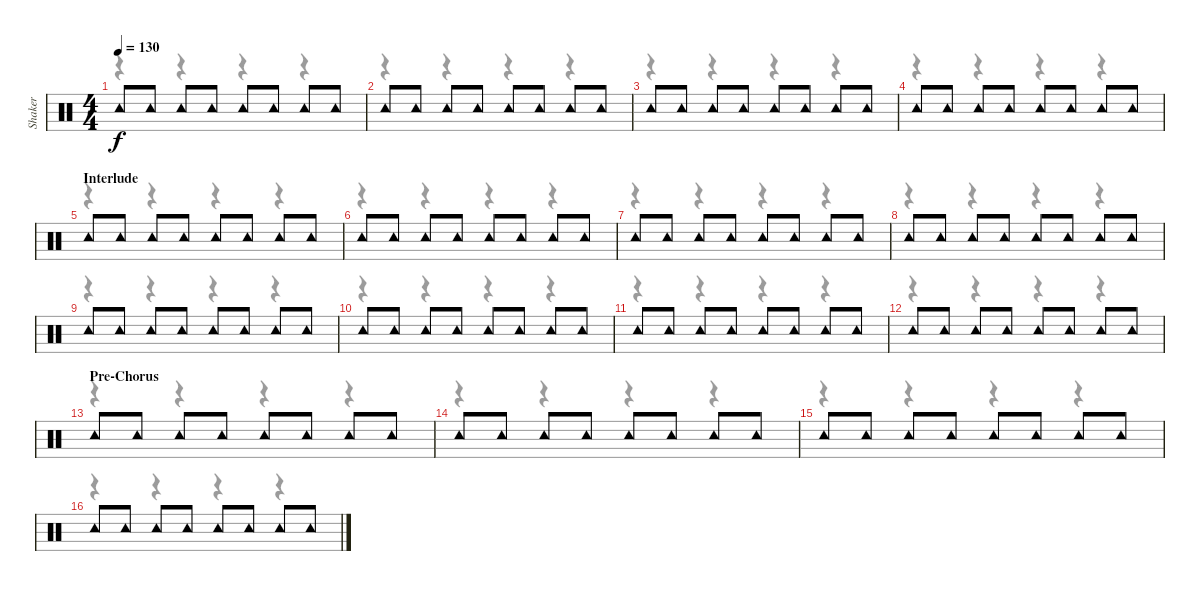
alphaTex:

\track ("Shaker" "Shaker") {instrument percussion}
\staff {score}
\articulation defaults
\voice
\ts (4 4)
\tempo 130
\clef neutral
\ks c "Tambourine (hit)".8{dy f} "Tambourine (hit)".8 "Tambourine (hit)".8 "Tambourine (hit)".8 "Tambourine (hit)".8 "Tambourine (hit)".8 "Tambourine (hit)".8 "Tambourine (hit)".8
|
"Tambourine (hit)".8 "Tambourine (hit)".8 "Tambourine (hit)".8 "Tambourine (hit)".8 "Tambourine (hit)".8 "Tambourine (hit)".8 "Tambourine (hit)".8 "Tambourine (hit)".8 |
"Tambourine (hit)".8 "Tambourine (hit)".8 "Tambourine (hit)".8 "Tambourine (hit)".8 "Tambourine (hit)".8 "Tambourine (hit)".8 "Tambourine (hit)".8 "Tambourine (hit)".8 |
"Tambourine (hit)".8 "Tambourine (hit)".8 "Tambourine (hit)".8 "Tambourine (hit)".8 "Tambourine (hit)".8 "Tambourine (hit)".8 "Tambourine (hit)".8 "Tambourine (hit)".8 |
\section ("" "Interlude")
"Tambourine (hit)".8 "Tambourine (hit)".8 "Tambourine (hit)".8 "Tambourine (hit)".8 "Tambourine (hit)".8 "Tambourine (hit)".8 "Tambourine (hit)".8 "Tambourine (hit)".8 |
"Tambourine (hit)".8 "Tambourine (hit)".8 "Tambourine (hit)".8 "Tambourine (hit)".8 "Tambourine (hit)".8 "Tambourine (hit)".8 "Tambourine (hit)".8 "Tambourine (hit)".8 |
"Tambourine (hit)".8 "Tambourine (hit)".8 "Tambourine (hit)".8 "Tambourine (hit)".8 "Tambourine (hit)".8 "Tambourine (hit)".8 "Tambourine (hit)".8 "Tambourine (hit)".8 |
"Tambourine (hit)".8 "Tambourine (hit)".8 "Tambourine (hit)".8 "Tambourine (hit)".8 "Tambourine (hit)".8 "Tambourine (hit)".8 "Tambourine (hit)".8 "Tambourine (hit)".8 |
"Tambourine (hit)".8 "Tambourine (hit)".8 "Tambourine (hit)".8 "Tambourine (hit)".8 "Tambourine (hit)".8 "Tambourine (hit)".8 "Tambourine (hit)".8 "Tambourine (hit)".8 |
"Tambourine (hit)".8 "Tambourine (hit)".8 "Tambourine (hit)".8 "Tambourine (hit)".8 "Tambourine (hit)".8 "Tambourine (hit)".8 "Tambourine (hit)".8 "Tambourine (hit)".8 |
"Tambourine (hit)".8 "Tambourine (hit)".8 "Tambourine (hit)".8 "Tambourine (hit)".8 "Tambourine (hit)".8 "Tambourine (hit)".8 "Tambourine (hit)".8 "Tambourine (hit)".8 |
"Tambourine (hit)".8 "Tambourine (hit)".8 "Tambourine (hit)".8 "Tambourine (hit)".8 "Tambourine (hit)".8 "Tambourine (hit)".8 "Tambourine (hit)".8 "Tambourine (hit)".8 |
\section ("" "Pre-Chorus")
"Tambourine (hit)".8 "Tambourine (hit)".8 "Tambourine (hit)".8 "Tambourine (hit)".8 "Tambourine (hit)".8 "Tambourine (hit)".8 "Tambourine (hit)".8 "Tambourine (hit)".8 |
"Tambourine (hit)".8 "Tambourine (hit)".8 "Tambourine (hit)".8 "Tambourine (hit)".8 "Tambourine (hit)".8 "Tambourine (hit)".8 "Tambourine (hit)".8 "Tambourine (hit)".8 |
"Tambourine (hit)".8 "Tambourine (hit)".8 "Tambourine (hit)".8 "Tambourine (hit)".8 "Tambourine (hit)".8 "Tambourine (hit)".8 "Tambourine (hit)".8 "Tambourine (hit)".8 |
"Tambourine (hit)".8 "Tambourine (hit)".8 "Tambourine (hit)".8 "Tambourine (hit)".8 "Tambourine (hit)".8 "Tambourine (hit)".8 "Tambourine (hit)".8 "Tambourine (hit)".8
\voice
\clef neutral
\ottava regular
\simile none
\ks c
r.4{dy f} r.4 r.4 r.4 |
r.4 r.4 r.4 r.4 |
r.4 r.4 r.4 r.4 |
r.4 r.4 r.4 r.4 |
r.4 r.4 r.4 r.4 |
r.4 r.4 r.4 r.4 |
r.4 r.4 r.4 r.4 |
r.4 r.4 r.4 r.4 |
r.4 r.4 r.4 r.4 |
r.4 r.4 r.4 r.4 |
r.4 r.4 r.4 r.4 |
r.4 r.4 r.4 r.4 |
r.4 r.4 r.4 r.4 |
r.4 r.4 r.4 r.4 |
r.4 r.4 r.4 r.4 |
r.4 r.4 r.4 r.4
